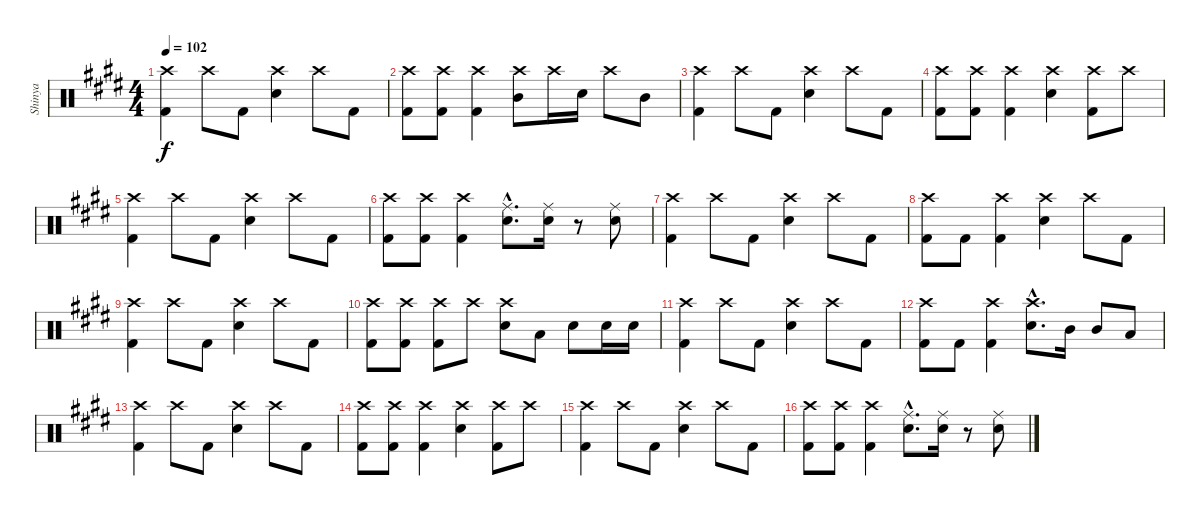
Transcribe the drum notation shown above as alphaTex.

\track ("Shinya" "Shinya") {instrument percussion}
\staff {score}
\articulation defaults
\ts (4 4)
\tempo 102
\clef neutral
\ks e
("Crash high (hit)" "Kick (hit) 2").4{dy f} "Crash high (hit)".8 "Kick (hit) 2".8 ("Crash high (hit)" "Snare (hit) 2").4 "Crash high (hit)".8 "Kick (hit) 2".8 |
("Crash high (hit)" "Kick (hit) 2").8 ("Crash high (hit)" "Kick (hit) 2").8 ("Crash high (hit)" "Kick (hit) 2").4 ("Crash high (hit)" "Mid Tom (hit)").8 "Crash high (hit)".16 "Snare (hit) 2".16 "Crash high (hit)".8 "Mid Tom (hit)".8 |
("Crash high (hit)" "Kick (hit) 2").4 "Crash high (hit)".8 "Kick (hit) 2".8 ("Crash high (hit)" "Snare (hit) 2").4 "Crash high (hit)".8 "Kick (hit) 2".8 |
("Crash high (hit)" "Kick (hit) 2").8 ("Crash high (hit)" "Kick (hit) 2").8 ("Crash high (hit)" "Kick (hit) 2").4 ("Crash high (hit)" "Snare (hit) 2").4 ("Crash high (hit)" "Kick (hit) 2").8 "Crash high (hit)".8 |
("Crash high (hit)" "Kick (hit) 2").4 "Crash high (hit)".8 "Kick (hit) 2".8 ("Crash high (hit)" "Snare (hit) 2").4 "Crash high (hit)".8 "Kick (hit) 2".8 |
("Crash high (hit)" "Kick (hit) 2").8 ("Crash high (hit)" "Kick (hit) 2").8 ("Crash high (hit)" "Kick (hit) 2").4 ("Ride (middle)"{hac} "Snare (hit) 2"{hac}).8{d} ("Ride (middle)" "Snare (hit) 2").16 r.8 ("Ride (middle)" "Snare (hit) 2").8 |
("Crash high (hit)" "Kick (hit) 2").4 "Crash high (hit)".8 "Kick (hit) 2".8 ("Crash high (hit)" "Snare (hit) 2").4 "Crash high (hit)".8 "Kick (hit) 2".8 |
("Crash high (hit)" "Kick (hit) 2").8 "Kick (hit) 2".8 ("Crash high (hit)" "Kick (hit) 2").4 ("Crash high (hit)" "Snare (hit) 2").4 "Crash high (hit)".8 "Kick (hit) 2".8 |
("Crash high (hit)" "Kick (hit) 2").4 "Crash high (hit)".8 "Kick (hit) 2".8 ("Crash high (hit)" "Snare (hit) 2").4 "Crash high (hit)".8 "Kick (hit) 2".8 |
("Crash high (hit)" "Kick (hit) 2").8 ("Crash high (hit)" "Kick (hit) 2").8 ("Crash high (hit)" "Kick (hit) 2").8 "Crash high (hit)".8 ("Crash high (hit)" "Snare (hit) 2").8 "Low Tom (hit)".8 "Snare (hit) 2".8 "Snare (hit) 2".16 "Snare (hit) 2".16 |
("Crash high (hit)" "Kick (hit) 2").4 "Crash high (hit)".8 "Kick (hit) 2".8 ("Crash high (hit)" "Snare (hit) 2").4 "Crash high (hit)".8 "Kick (hit) 2".8 |
("Crash high (hit)" "Kick (hit) 2").8 "Kick (hit) 2".8 ("Crash high (hit)" "Kick (hit) 2").4 ("Crash high (hit)"{hac} "Snare (hit) 2"{hac}).8{d} "Mid Tom (hit)".16 "Mid Tom (hit)".8 "Low Tom (hit)".8 |
("Crash high (hit)" "Kick (hit) 2").4 "Crash high (hit)".8 "Kick (hit) 2".8 ("Crash high (hit)" "Snare (hit) 2").4 "Crash high (hit)".8 "Kick (hit) 2".8 |
("Crash high (hit)" "Kick (hit) 2").8 ("Crash high (hit)" "Kick (hit) 2").8 ("Crash high (hit)" "Kick (hit) 2").4 ("Crash high (hit)" "Snare (hit) 2").4 ("Crash high (hit)" "Kick (hit) 2").8 "Crash high (hit)".8 |
("Crash high (hit)" "Kick (hit) 2").4 "Crash high (hit)".8 "Kick (hit) 2".8 ("Crash high (hit)" "Snare (hit) 2").4 "Crash high (hit)".8 "Kick (hit) 2".8 |
("Crash high (hit)" "Kick (hit) 2").8 ("Crash high (hit)" "Kick (hit) 2").8 ("Crash high (hit)" "Kick (hit) 2").4 ("Ride (middle)"{hac} "Snare (hit) 2"{hac}).8{d} ("Ride (middle)" "Snare (hit) 2").16 r.8 ("Ride (middle)" "Snare (hit) 2").8
